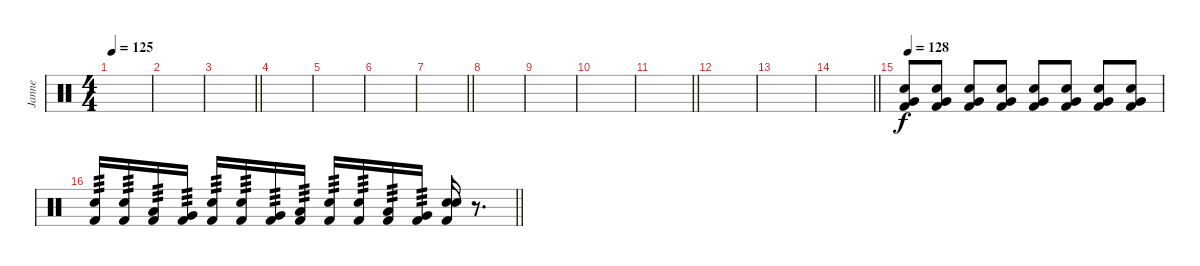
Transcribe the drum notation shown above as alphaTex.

\track ("Janne" "Janne") {instrument percussion}
\staff {score}
\articulation defaults
\ts (4 4)
\tempo 125
\clef neutral
\ks c
|
|
\barLineRight lightlight
|
\section ("" "")
|
|
|
\barLineRight lightlight
|
\section ("" "")
|
|
|
\barLineRight lightlight
|
\section ("" "")
|
|
\barLineRight lightlight
|
\section ("" "")
\tempo 128
("Kick (hit) 2" "Snare (hit) 2" "Very Low Tom (hit)").8 ("Kick (hit) 2" "Snare (hit) 2" "Very Low Tom (hit)").8 ("Kick (hit) 2" "Snare (hit) 2" "Very Low Tom (hit)").8 ("Kick (hit) 2" "Snare (hit) 2" "Very Low Tom (hit)").8 ("Kick (hit) 2" "Snare (hit) 2" "Very Low Tom (hit)").8 ("Kick (hit) 2" "Snare (hit) 2" "Very Low Tom (hit)").8 ("Kick (hit) 2" "Snare (hit) 2" "Very Low Tom (hit)").8 ("Kick (hit) 2" "Snare (hit) 2" "Very Low Tom (hit)").8 |
\barLineRight lightlight
("Kick (hit) 2" "Snare (hit) 2").16{tp 3} ("Kick (hit) 2" "Snare (hit) 2").16{tp 3} ("Kick (hit) 2" "Low Tom (hit)").16{tp 3} ("Kick (hit) 2" "Very Low Tom (hit)").16{tp 3} ("Kick (hit) 2" "Snare (hit) 2").16{tp 3} ("Kick (hit) 2" "Snare (hit) 2").16{tp 3} ("Kick (hit) 2" "Very Low Tom (hit)").16{tp 3} ("Kick (hit) 2" "Low Floor Tom (hit)").16{tp 3} ("Kick (hit) 2" "Snare (hit) 2").16{tp 3} ("Kick (hit) 2" "Snare (hit) 2").16{tp 3} ("Kick (hit) 2" "Low Tom (hit)").16{tp 3} ("Kick (hit) 2" "Very Low Tom (hit)").16{tp 3} ("Kick (hit) 2" "Snare (hit) 2" "Electric Snare (hit)").16 r.8{d}
